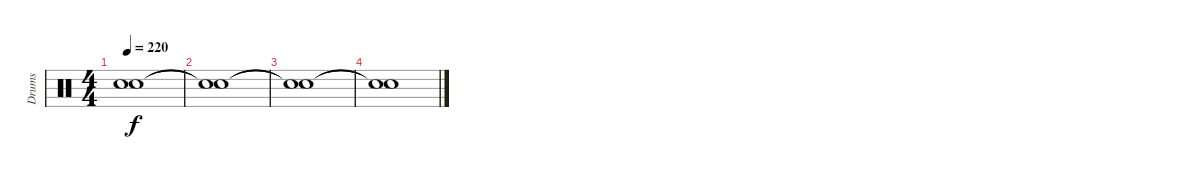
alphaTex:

\track ("Drums" "Drums") {instrument percussion}
\staff {score}
\articulation defaults
\ts (4 4)
\tempo 220
\clef neutral
\ks c
("Snare (hit)"{t} "Snare (hit)"{t}).1{dy f} |
("Snare (hit)"{t} "Snare (hit)"{t}).1 |
("Snare (hit)"{t} "Snare (hit)"{t}).1 |
("Snare (hit)"{t} "Snare (hit)"{t}).1
